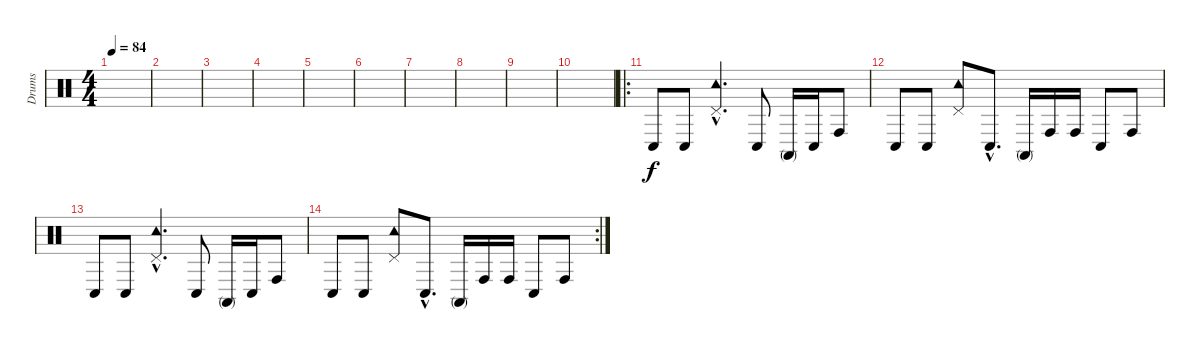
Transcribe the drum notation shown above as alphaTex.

\track ("Drums" "Drums") {instrument percussion}
\staff {score}
\articulation defaults
\ts (4 4)
\tempo 84
\clef neutral
\ks c
|
|
|
|
|
|
|
|
|
|
\ro "Conga low (hit)".8 "Conga low (hit)".8
("Pedal Hi-Hat (hit)"{hac} "Tambourine (hit)"{hac}).4{d} "Conga low (hit)".8 "Conga high (mute)".16 "Conga low (hit)".16 "Conga high (hit)".8 |
"Conga low (hit)".8 "Conga low (hit)".8 ("Pedal Hi-Hat (hit)" "Tambourine (hit)").8 "Conga low (hit)"{hac}.8{d} "Conga high (mute)".16 "Conga high (hit)".16 "Conga high (hit)".16 "Conga low (hit)".8 "Conga high (hit)".8 |
"Conga low (hit)".8 "Conga low (hit)".8 ("Pedal Hi-Hat (hit)"{hac} "Tambourine (hit)"{hac}).4{d} "Conga low (hit)".8 "Conga high (mute)".16 "Conga low (hit)".16 "Conga high (hit)".8 |
\rc 2 "Conga low (hit)".8 "Conga low (hit)".8
("Pedal Hi-Hat (hit)" "Tambourine (hit)").8 "Conga low (hit)"{hac}.8{d} "Conga high (mute)".16 "Conga high (hit)".16 "Conga high (hit)".16 "Conga low (hit)".8 "Conga high (hit)".8
